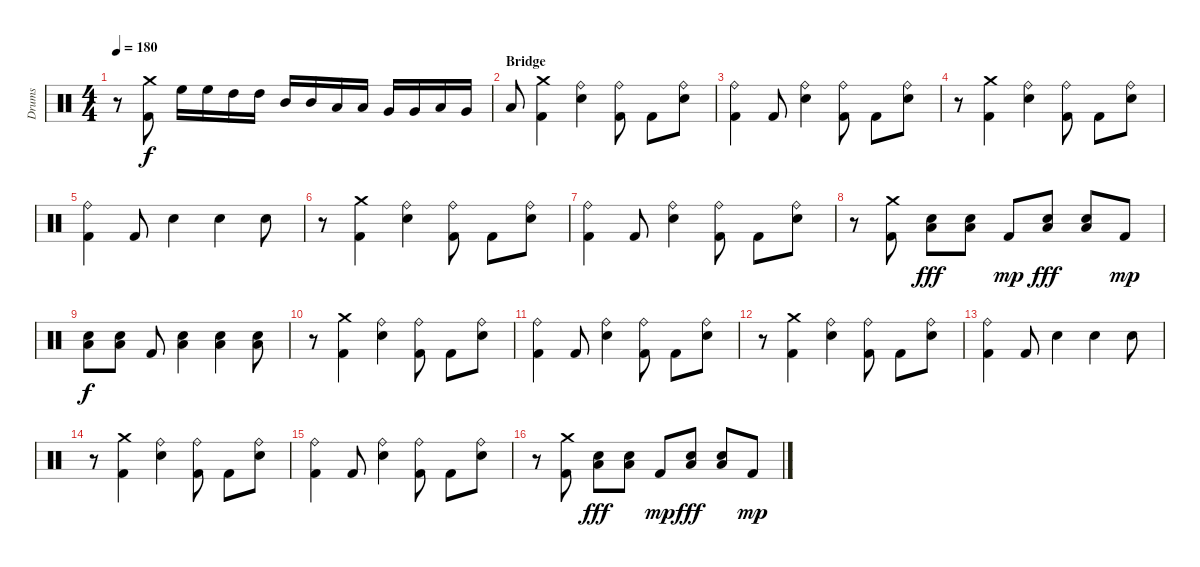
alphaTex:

\track ("Drums" "Drums") {instrument percussion}
\staff {score}
\articulation defaults
\ts (4 4)
\tempo 180
\clef neutral
\ks c
r.8{dy f} ("Crash medium (hit)" "Kick (hit) 2").8 "High Floor Tom (hit)".16 "High Floor Tom (hit)".16 "High Tom (hit)".16 "High Tom (hit)".16 "Mid Tom (hit)".16 "Mid Tom (hit)".16 "Low Tom (hit)".16 "Low Tom (hit)".16 "Very Low Tom (hit)".16 "Very Low Tom (hit)".16 "Low Floor Tom (hit)".16 "Very Low Tom (hit)".16 |
\section ("" "Bridge")
"Low Floor Tom (hit)".8 ("Crash medium (hit)" "Kick (hit) 2").4 ("Ride (bell)" "Snare (hit) 2").4 ("Ride (bell)" "Kick (hit) 2").8 "Kick (hit) 2".8 ("Ride (bell)" "Snare (hit) 2").8 |
("Ride (bell)" "Kick (hit) 2").4 "Kick (hit) 2".8 ("Ride (bell)" "Snare (hit) 2").4 ("Ride (bell)" "Kick (hit) 2").8 "Kick (hit) 2".8 ("Ride (bell)" "Snare (hit) 2").8 |
r.8 ("Crash medium (hit)" "Kick (hit) 2").4 ("Ride (bell)" "Snare (hit) 2").4 ("Ride (bell)" "Kick (hit) 2").8 "Kick (hit) 2".8 ("Ride (bell)" "Snare (hit) 2").8 |
("Ride (bell)" "Kick (hit) 2").4 "Kick (hit) 2".8 "Snare (hit) 2".4 "Snare (hit) 2".4 "Snare (hit) 2".8 |
r.8 ("Crash medium (hit)" "Kick (hit) 2").4 ("Ride (bell)" "Snare (hit) 2").4 ("Ride (bell)" "Kick (hit) 2").8 "Kick (hit) 2".8 ("Ride (bell)" "Snare (hit) 2").8 |
("Ride (bell)" "Kick (hit) 2").4 "Kick (hit) 2".8 ("Ride (bell)" "Snare (hit) 2").4 ("Ride (bell)" "Kick (hit) 2").8 "Kick (hit) 2".8 ("Ride (bell)" "Snare (hit) 2").8 |
r.8 ("Crash medium (hit)" "Kick (hit) 2").8 ("Snare (hit) 2" "Low Floor Tom (hit)").8{dy fff} ("Snare (hit) 2" "Low Floor Tom (hit)").8 "Kick (hit) 2".8{dy mp} ("Snare (hit) 2" "Low Floor Tom (hit)").8{dy fff} ("Snare (hit) 2" "Low Floor Tom (hit)").8 "Kick (hit) 2".8{dy mp} |
("Snare (hit) 2" "Low Floor Tom (hit)").8{dy f} ("Snare (hit) 2" "Low Floor Tom (hit)").8 "Kick (hit) 2".8 ("Snare (hit) 2" "Low Floor Tom (hit)").4 ("Snare (hit) 2" "Low Floor Tom (hit)").4 ("Snare (hit) 2" "Low Floor Tom (hit)").8 |
r.8 ("Crash medium (hit)" "Kick (hit) 2").4 ("Ride (bell)" "Snare (hit) 2").4 ("Ride (bell)" "Kick (hit) 2").8 "Kick (hit) 2".8 ("Ride (bell)" "Snare (hit) 2").8 |
("Ride (bell)" "Kick (hit) 2").4 "Kick (hit) 2".8 ("Ride (bell)" "Snare (hit) 2").4 ("Ride (bell)" "Kick (hit) 2").8 "Kick (hit) 2".8 ("Ride (bell)" "Snare (hit) 2").8 |
r.8 ("Crash medium (hit)" "Kick (hit) 2").4 ("Ride (bell)" "Snare (hit) 2").4 ("Ride (bell)" "Kick (hit) 2").8 "Kick (hit) 2".8 ("Ride (bell)" "Snare (hit) 2").8 |
("Ride (bell)" "Kick (hit) 2").4 "Kick (hit) 2".8 "Snare (hit) 2".4 "Snare (hit) 2".4 "Snare (hit) 2".8 |
r.8 ("Crash medium (hit)" "Kick (hit) 2").4 ("Ride (bell)" "Snare (hit) 2").4 ("Ride (bell)" "Kick (hit) 2").8 "Kick (hit) 2".8 ("Ride (bell)" "Snare (hit) 2").8 |
("Ride (bell)" "Kick (hit) 2").4 "Kick (hit) 2".8 ("Ride (bell)" "Snare (hit) 2").4 ("Ride (bell)" "Kick (hit) 2").8 "Kick (hit) 2".8 ("Ride (bell)" "Snare (hit) 2").8 |
r.8 ("Crash medium (hit)" "Kick (hit) 2").8 ("Snare (hit) 2" "Low Floor Tom (hit)").8{dy fff} ("Snare (hit) 2" "Low Floor Tom (hit)").8 "Kick (hit) 2".8{dy mp} ("Snare (hit) 2" "Low Floor Tom (hit)").8{dy fff} ("Snare (hit) 2" "Low Floor Tom (hit)").8 "Kick (hit) 2".8{dy mp}
